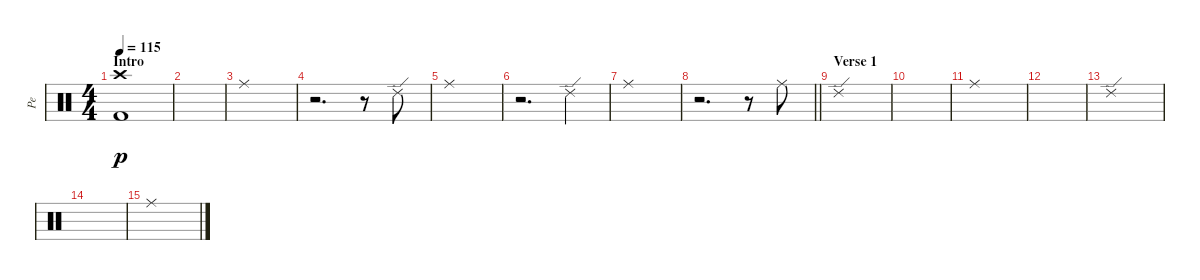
\track ("Pe" "Pe") {instrument percussion}
\staff {score}
\articulation defaults
\ts (4 4)
\section ("" "Intro")
\tempo 115
\clef neutral
\ks c
("Kick (hit) 2" "Crash high (hit)").1{dy p volume 13} |
|
"Ride (middle)".1 |
r.2{d} r.8 "Ride (edge) 2".8 |
"Ride (middle)".1 |
r.2{d} "Ride (edge) 2".4 |
"Ride (middle)".1 |
\barLineRight lightlight
r.2{d} r.8 "Ride (middle)".8 |
\section ("" "Verse 1")
"Ride (edge) 2".1 |
|
"Ride (middle)".1 |
|
"Ride (edge) 2".1 |
|
"Ride (middle)".1
